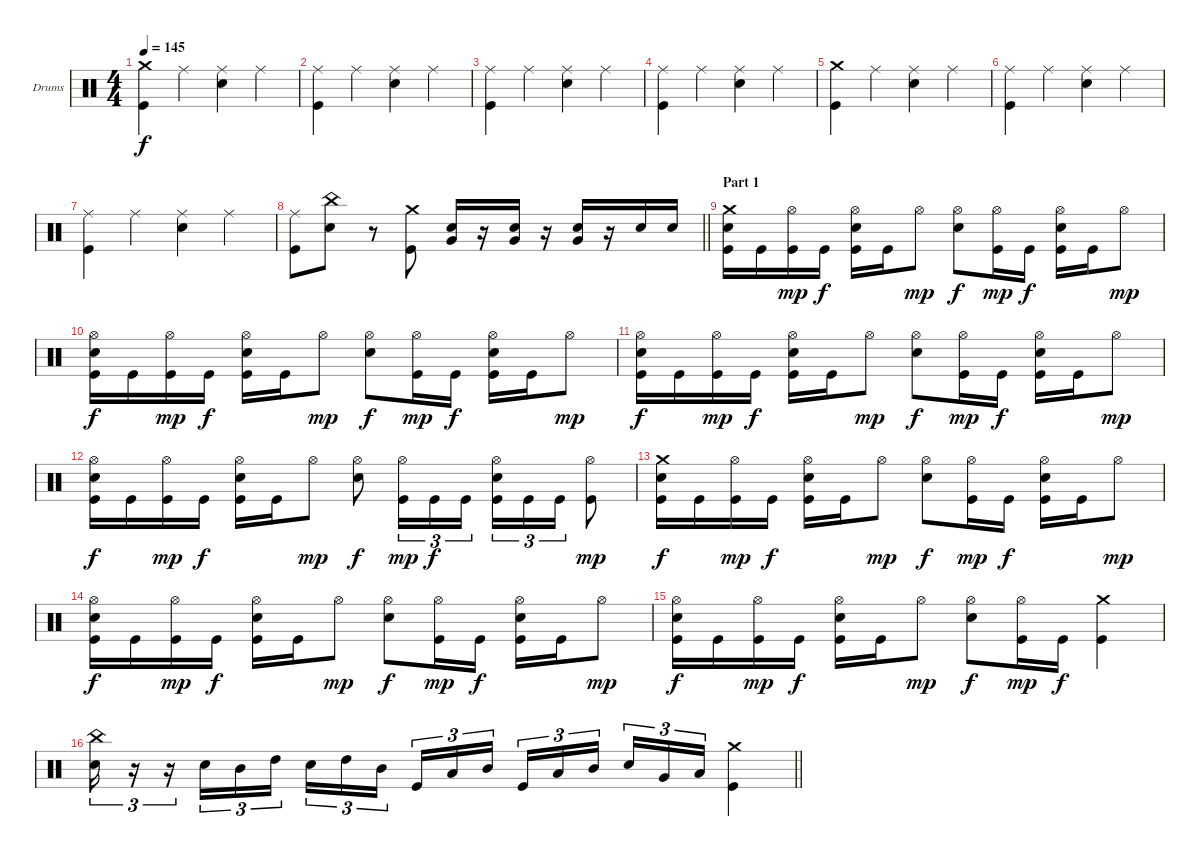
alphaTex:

\bracketExtendMode groupsimilarinstruments
\firstSystemTrackNameOrientation horizontal
\otherSystemsTrackNameOrientation horizontal
\track ("Drumkit" "Drums") {instrument percussion}
\staff {score}
\articulation defaults
\ts (4 4)
\tempo 145
\clef neutral
\ks c
("Crash medium (hit)" "Kick (hit)").4{dy f} "Ride (middle)".4 ("Ride (middle)" "Snare (hit) 2").4 "Ride (middle)".4 |
("Ride (middle)" "Kick (hit)").4 "Ride (middle)".4 ("Ride (middle)" "Snare (hit) 2").4 "Ride (middle)".4 |
("Ride (middle)" "Kick (hit)").4 "Ride (middle)".4 ("Ride (middle)" "Snare (hit) 2").4 "Ride (middle)".4 |
("Ride (middle)" "Kick (hit)").4 "Ride (middle)".4 ("Ride (middle)" "Snare (hit) 2").4 "Ride (middle)".4 |
("Crash medium (hit)" "Kick (hit)").4 "Ride (middle)".4 ("Ride (middle)" "Snare (hit) 2").4 "Ride (middle)".4 |
("Ride (middle)" "Kick (hit)").4 "Ride (middle)".4 ("Ride (middle)" "Snare (hit) 2").4 "Ride (middle)".4 |
("Ride (middle)" "Kick (hit)").4 "Ride (middle)".4 ("Ride (middle)" "Snare (hit) 2").4 "Ride (middle)".4 |
\barLineRight lightlight
("Ride (middle)" "Kick (hit)").8 ("China (hit)" "Snare (hit) 2").8 r.8 ("Crash medium (hit)" "Kick (hit)").8 ("Very Low Tom (hit)" "Snare (hit) 2").16 r.16 ("Very Low Tom (hit)" "Snare (hit) 2").16 r.16 ("Very Low Tom (hit)" "Snare (hit) 2").16 r.16 "Snare (hit) 2".16 "Snare (hit) 2".16 |
\section ("" "Part 1")
("Crash medium (hit)" "Snare (hit) 2" "Kick (hit)").16 "Kick (hit)".16 ("Hi-Hat (open)" "Kick (hit)").16{dy mp} "Kick (hit)".16{dy f} ("Hi-Hat (open)" "Snare (hit) 2" "Kick (hit)").16 "Kick (hit)".16 "Hi-Hat (open)".8{dy mp} ("Hi-Hat (open)" "Snare (hit) 2").8{dy f} ("Hi-Hat (open)" "Kick (hit)").16{dy mp} "Kick (hit)".16{dy f} ("Hi-Hat (open)" "Snare (hit) 2" "Kick (hit)").16 "Kick (hit)".16 "Hi-Hat (open)".8{dy mp} |
("Hi-Hat (open)" "Snare (hit) 2" "Kick (hit)").16{dy f} "Kick (hit)".16 ("Hi-Hat (open)" "Kick (hit)").16{dy mp} "Kick (hit)".16{dy f} ("Hi-Hat (open)" "Snare (hit) 2" "Kick (hit)").16 "Kick (hit)".16 "Hi-Hat (open)".8{dy mp} ("Hi-Hat (open)" "Snare (hit) 2").8{dy f} ("Hi-Hat (open)" "Kick (hit)").16{dy mp} "Kick (hit)".16{dy f} ("Hi-Hat (open)" "Snare (hit) 2" "Kick (hit)").16 "Kick (hit)".16 "Hi-Hat (open)".8{dy mp} |
("Hi-Hat (open)" "Snare (hit) 2" "Kick (hit)").16{dy f} "Kick (hit)".16 ("Hi-Hat (open)" "Kick (hit)").16{dy mp} "Kick (hit)".16{dy f} ("Hi-Hat (open)" "Snare (hit) 2" "Kick (hit)").16 "Kick (hit)".16 "Hi-Hat (open)".8{dy mp} ("Hi-Hat (open)" "Snare (hit) 2").8{dy f} ("Hi-Hat (open)" "Kick (hit)").16{dy mp} "Kick (hit)".16{dy f} ("Hi-Hat (open)" "Snare (hit) 2" "Kick (hit)").16 "Kick (hit)".16 "Hi-Hat (open)".8{dy mp} |
("Hi-Hat (open)" "Snare (hit) 2" "Kick (hit)").16{dy f} "Kick (hit)".16 ("Hi-Hat (open)" "Kick (hit)").16{dy mp} "Kick (hit)".16{dy f} ("Hi-Hat (open)" "Snare (hit) 2" "Kick (hit)").16 "Kick (hit)".16 "Hi-Hat (open)".8{dy mp} ("Hi-Hat (open)" "Snare (hit) 2").8{dy f} ("Hi-Hat (open)" "Kick (hit)").16{tu (3 2) dy mp} "Kick (hit)".16{tu (3 2) dy f} "Kick (hit)".16{tu (3 2)} ("Hi-Hat (open)" "Snare (hit) 2" "Kick (hit)").16{tu (3 2)} "Kick (hit)".16{tu (3 2)} "Kick (hit)".16{tu (3 2)} ("Hi-Hat (open)" "Kick (hit)").8{dy mp} |
("Crash medium (hit)" "Snare (hit) 2" "Kick (hit)").16{dy f} "Kick (hit)".16 ("Hi-Hat (open)" "Kick (hit)").16{dy mp} "Kick (hit)".16{dy f} ("Hi-Hat (open)" "Snare (hit) 2" "Kick (hit)").16 "Kick (hit)".16 "Hi-Hat (open)".8{dy mp} ("Hi-Hat (open)" "Snare (hit) 2").8{dy f} ("Hi-Hat (open)" "Kick (hit)").16{dy mp} "Kick (hit)".16{dy f} ("Hi-Hat (open)" "Snare (hit) 2" "Kick (hit)").16 "Kick (hit)".16 "Hi-Hat (open)".8{dy mp} |
("Hi-Hat (open)" "Snare (hit) 2" "Kick (hit)").16{dy f} "Kick (hit)".16 ("Hi-Hat (open)" "Kick (hit)").16{dy mp} "Kick (hit)".16{dy f} ("Hi-Hat (open)" "Snare (hit) 2" "Kick (hit)").16 "Kick (hit)".16 "Hi-Hat (open)".8{dy mp} ("Hi-Hat (open)" "Snare (hit) 2").8{dy f} ("Hi-Hat (open)" "Kick (hit)").16{dy mp} "Kick (hit)".16{dy f} ("Hi-Hat (open)" "Snare (hit) 2" "Kick (hit)").16 "Kick (hit)".16 "Hi-Hat (open)".8{dy mp} |
("Hi-Hat (open)" "Snare (hit) 2" "Kick (hit)").16{dy f} "Kick (hit)".16 ("Hi-Hat (open)" "Kick (hit)").16{dy mp} "Kick (hit)".16{dy f} ("Hi-Hat (open)" "Snare (hit) 2" "Kick (hit)").16 "Kick (hit)".16 "Hi-Hat (open)".8{dy mp} ("Hi-Hat (open)" "Snare (hit) 2").8{dy f} ("Hi-Hat (open)" "Kick (hit)").16{dy mp} "Kick (hit)".16{dy f} ("Crash medium (hit)" "Kick (hit)").4 |
\barLineRight lightlight
("China (hit)" "Snare (hit) 2").16{tu (3 2)} r.16{tu (3 2)} r.16{tu (3 2)} "Snare (hit) 2".16{tu (3 2)} "Mid Tom (hit)".16{tu (3 2)} "High Tom (hit)".16{tu (3 2)} "Snare (hit) 2".16{tu (3 2)} "High Tom (hit)".16{tu (3 2)} "Mid Tom (hit)".16{tu (3 2)} "Kick (hit)".16{tu (3 2)} "Low Tom (hit)".16{tu (3 2)} "Mid Tom (hit)".16{tu (3 2)} "Kick (hit)".16{tu (3 2)} "Low Tom (hit)".16{tu (3 2)} "Mid Tom (hit)".16{tu (3 2)} "Snare (hit) 2".16{tu (3 2)} "Very Low Tom (hit)".16{tu (3 2)} "Low Tom (hit)".16{tu (3 2)} ("Crash medium (hit)" "Kick (hit)").4
